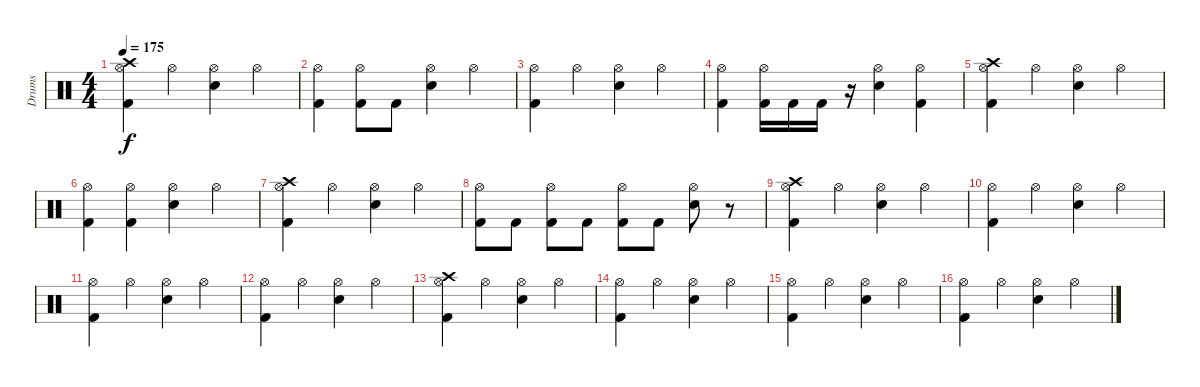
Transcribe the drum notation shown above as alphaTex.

\track ("Drums" "Drums") {instrument percussion}
\staff {score}
\articulation defaults
\ts (4 4)
\tempo 175
\clef neutral
\ks c
("Crash high (hit)" "Hi-Hat (open)" "Kick (hit) 2").4{dy f} "Hi-Hat (open)".4 ("Hi-Hat (open)" "Snare (hit) 2").4 "Hi-Hat (open)".4 |
("Hi-Hat (open)" "Kick (hit) 2").4 ("Hi-Hat (open)" "Kick (hit) 2").8 "Kick (hit) 2".8 ("Hi-Hat (open)" "Snare (hit) 2").4 "Hi-Hat (open)".4 |
("Hi-Hat (open)" "Kick (hit) 2").4 "Hi-Hat (open)".4 ("Hi-Hat (open)" "Snare (hit) 2").4 "Hi-Hat (open)".4 |
("Hi-Hat (open)" "Kick (hit) 2").4 ("Hi-Hat (open)" "Kick (hit) 2").16 "Kick (hit) 2".16 "Kick (hit) 2".16 r.16 ("Hi-Hat (open)" "Snare (hit) 2").4 ("Hi-Hat (open)" "Kick (hit) 2").4 |
("Crash high (hit)" "Hi-Hat (open)" "Kick (hit) 2").4 "Hi-Hat (open)".4 ("Hi-Hat (open)" "Snare (hit) 2").4 "Hi-Hat (open)".4 |
("Hi-Hat (open)" "Kick (hit) 2").4 ("Hi-Hat (open)" "Kick (hit) 2").4 ("Hi-Hat (open)" "Snare (hit) 2").4 "Hi-Hat (open)".4 |
("Crash high (hit)" "Hi-Hat (open)" "Kick (hit) 2").4 "Hi-Hat (open)".4 ("Hi-Hat (open)" "Snare (hit) 2").4 "Hi-Hat (open)".4 |
("Hi-Hat (open)" "Kick (hit) 2").8 "Kick (hit) 2".8 ("Hi-Hat (open)" "Kick (hit) 2").8 "Kick (hit) 2".8 ("Hi-Hat (open)" "Kick (hit) 2").8 "Kick (hit) 2".8 ("Hi-Hat (open)" "Snare (hit) 2").8 r.8 |
("Crash high (hit)" "Hi-Hat (open)" "Kick (hit) 2").4 "Hi-Hat (open)".4 ("Hi-Hat (open)" "Snare (hit) 2").4 "Hi-Hat (open)".4 |
("Hi-Hat (open)" "Kick (hit) 2").4 "Hi-Hat (open)".4 ("Hi-Hat (open)" "Snare (hit) 2").4 "Hi-Hat (open)".4 |
("Hi-Hat (open)" "Kick (hit) 2").4 "Hi-Hat (open)".4 ("Hi-Hat (open)" "Snare (hit) 2").4 "Hi-Hat (open)".4 |
("Hi-Hat (open)" "Kick (hit) 2").4 "Hi-Hat (open)".4 ("Hi-Hat (open)" "Snare (hit) 2").4 "Hi-Hat (open)".4 |
("Crash high (hit)" "Hi-Hat (open)" "Kick (hit) 2").4 "Hi-Hat (open)".4 ("Hi-Hat (open)" "Snare (hit) 2").4 "Hi-Hat (open)".4 |
("Hi-Hat (open)" "Kick (hit) 2").4 "Hi-Hat (open)".4 ("Hi-Hat (open)" "Snare (hit) 2").4 "Hi-Hat (open)".4 |
("Hi-Hat (open)" "Kick (hit) 2").4 "Hi-Hat (open)".4 ("Hi-Hat (open)" "Snare (hit) 2").4 "Hi-Hat (open)".4 |
("Hi-Hat (open)" "Kick (hit) 2").4 "Hi-Hat (open)".4 ("Hi-Hat (open)" "Snare (hit) 2").4 "Hi-Hat (open)".4
